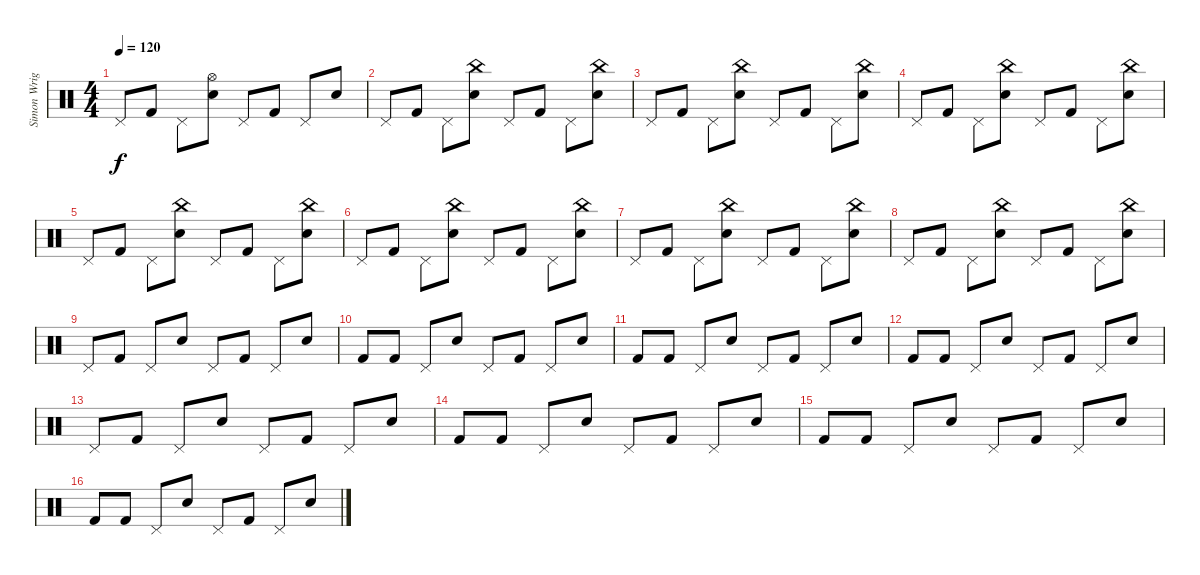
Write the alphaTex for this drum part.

\track ("Simon Wright (i think)" "Simon Wrig") {instrument percussion}
\staff {score}
\articulation defaults
\ts (4 4)
\tempo 120
\clef neutral
\ks c "Pedal Hi-Hat (hit)".8{dy f} "Kick (hit) 2".8 "Pedal Hi-Hat (hit)".8
("Snare (hit) 2" "Hi-Hat (open)").8 "Pedal Hi-Hat (hit)".8 "Kick (hit) 2".8 "Pedal Hi-Hat (hit)".8 "Snare (hit) 2".8 |
"Pedal Hi-Hat (hit)".8 "Kick (hit) 2".8 "Pedal Hi-Hat (hit)".8 ("Snare (hit) 2" "China (hit)").8 "Pedal Hi-Hat (hit)".8 "Kick (hit) 2".8 "Pedal Hi-Hat (hit)".8 ("Snare (hit) 2" "China (hit)").8 |
"Pedal Hi-Hat (hit)".8 "Kick (hit) 2".8 "Pedal Hi-Hat (hit)".8 ("Snare (hit) 2" "China (hit)").8 "Pedal Hi-Hat (hit)".8 "Kick (hit) 2".8 "Pedal Hi-Hat (hit)".8 ("Snare (hit) 2" "China (hit)").8 |
"Pedal Hi-Hat (hit)".8 "Kick (hit) 2".8 "Pedal Hi-Hat (hit)".8 ("Snare (hit) 2" "China (hit)").8 "Pedal Hi-Hat (hit)".8 "Kick (hit) 2".8 "Pedal Hi-Hat (hit)".8 ("Snare (hit) 2" "China (hit)").8 |
"Pedal Hi-Hat (hit)".8 "Kick (hit) 2".8 "Pedal Hi-Hat (hit)".8 ("Snare (hit) 2" "China (hit)").8 "Pedal Hi-Hat (hit)".8 "Kick (hit) 2".8 "Pedal Hi-Hat (hit)".8 ("Snare (hit) 2" "China (hit)").8 |
"Pedal Hi-Hat (hit)".8 "Kick (hit) 2".8 "Pedal Hi-Hat (hit)".8 ("Snare (hit) 2" "China (hit)").8 "Pedal Hi-Hat (hit)".8 "Kick (hit) 2".8 "Pedal Hi-Hat (hit)".8 ("Snare (hit) 2" "China (hit)").8 |
"Pedal Hi-Hat (hit)".8 "Kick (hit) 2".8 "Pedal Hi-Hat (hit)".8 ("Snare (hit) 2" "China (hit)").8 "Pedal Hi-Hat (hit)".8 "Kick (hit) 2".8 "Pedal Hi-Hat (hit)".8 ("Snare (hit) 2" "China (hit)").8 |
"Pedal Hi-Hat (hit)".8 "Kick (hit) 2".8 "Pedal Hi-Hat (hit)".8 ("Snare (hit) 2" "China (hit)").8 "Pedal Hi-Hat (hit)".8 "Kick (hit) 2".8 "Pedal Hi-Hat (hit)".8 ("Snare (hit) 2" "China (hit)").8 |
"Pedal Hi-Hat (hit)".8 "Kick (hit) 2".8 "Pedal Hi-Hat (hit)".8 "Snare (hit) 2".8 "Pedal Hi-Hat (hit)".8 "Kick (hit) 2".8 "Pedal Hi-Hat (hit)".8 "Snare (hit) 2".8 |
"Kick (hit) 2".8 "Kick (hit) 2".8 "Pedal Hi-Hat (hit)".8 "Snare (hit) 2".8 "Pedal Hi-Hat (hit)".8 "Kick (hit) 2".8 "Pedal Hi-Hat (hit)".8 "Snare (hit) 2".8 |
"Kick (hit) 2".8 "Kick (hit) 2".8 "Pedal Hi-Hat (hit)".8 "Snare (hit) 2".8 "Pedal Hi-Hat (hit)".8 "Kick (hit) 2".8 "Pedal Hi-Hat (hit)".8 "Snare (hit) 2".8 |
"Kick (hit) 2".8 "Kick (hit) 2".8 "Pedal Hi-Hat (hit)".8 "Snare (hit) 2".8 "Pedal Hi-Hat (hit)".8 "Kick (hit) 2".8 "Pedal Hi-Hat (hit)".8 "Snare (hit) 2".8 |
"Pedal Hi-Hat (hit)".8 "Kick (hit) 2".8 "Pedal Hi-Hat (hit)".8 "Snare (hit) 2".8 "Pedal Hi-Hat (hit)".8 "Kick (hit) 2".8 "Pedal Hi-Hat (hit)".8 "Snare (hit) 2".8 |
"Kick (hit) 2".8 "Kick (hit) 2".8 "Pedal Hi-Hat (hit)".8 "Snare (hit) 2".8 "Pedal Hi-Hat (hit)".8 "Kick (hit) 2".8 "Pedal Hi-Hat (hit)".8 "Snare (hit) 2".8 |
"Kick (hit) 2".8 "Kick (hit) 2".8 "Pedal Hi-Hat (hit)".8 "Snare (hit) 2".8 "Pedal Hi-Hat (hit)".8 "Kick (hit) 2".8 "Pedal Hi-Hat (hit)".8 "Snare (hit) 2".8 |
"Kick (hit) 2".8 "Kick (hit) 2".8 "Pedal Hi-Hat (hit)".8 "Snare (hit) 2".8 "Pedal Hi-Hat (hit)".8 "Kick (hit) 2".8 "Pedal Hi-Hat (hit)".8 "Snare (hit) 2".8
